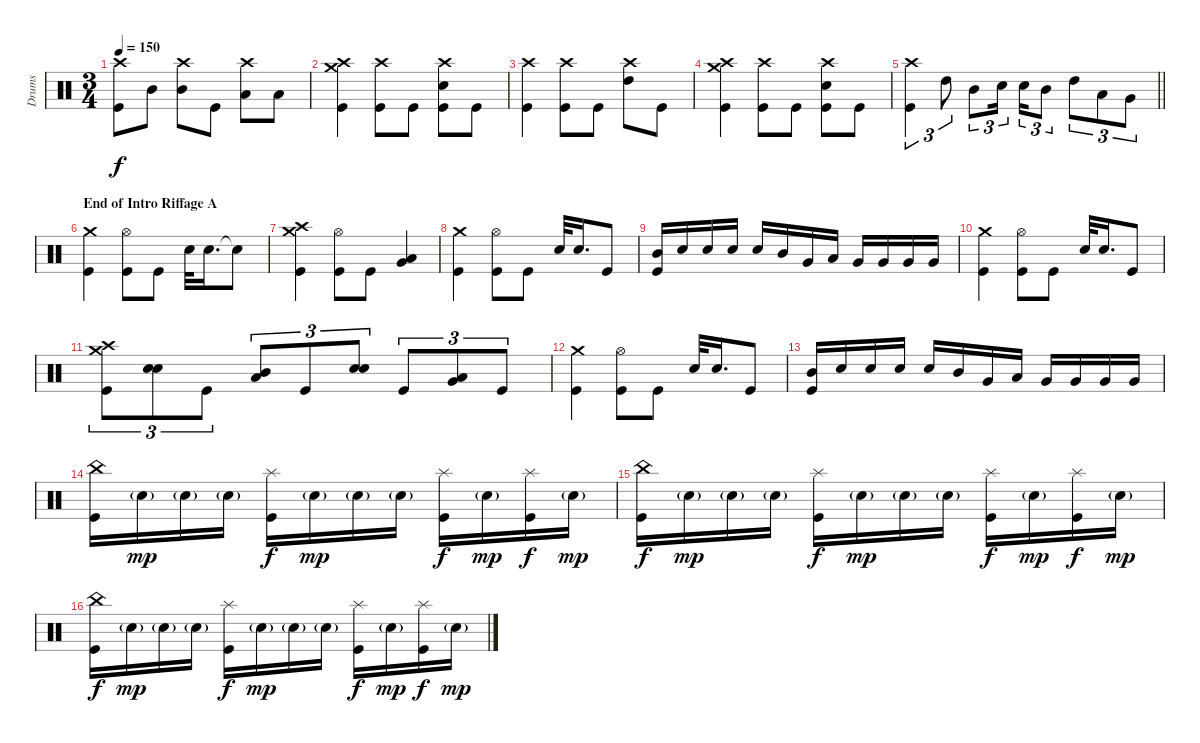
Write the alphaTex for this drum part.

\track ("Drums" "Drums") {instrument percussion}
\staff {score}
\articulation defaults
\ts (3 4)
\tempo 150
\clef neutral
\ks c
("Crash high (hit)" "Kick (hit)").8{dy f} "Mid Tom (hit)".8 ("Crash high (hit)" "Mid Tom (hit)").8 "Kick (hit)".8 ("Crash high (hit)" "Low Tom (hit)").8 "Low Tom (hit)".8 |
("Crash medium (hit)" "Crash high (hit)" "Kick (hit)").4 ("Crash high (hit)" "Kick (hit)").8 "Kick (hit)".8 ("Crash high (hit)" "Electric Snare (hit)" "Kick (hit)").8 "Kick (hit)".8 |
("Crash high (hit)" "Kick (hit)").4 ("Crash high (hit)" "Kick (hit)").8 "Kick (hit)".8 ("Crash high (hit)" "High Tom (hit)").8 "Kick (hit)".8 |
("Crash medium (hit)" "Crash high (hit)" "Kick (hit)").4 ("Crash high (hit)" "Kick (hit)").8 "Kick (hit)".8 ("Crash high (hit)" "Electric Snare (hit)" "Kick (hit)").8 "Kick (hit)".8 |
\barLineRight lightlight
("Crash high (hit)" "Kick (hit)").4{tu (3 2)} "High Tom (hit)".8{tu (3 2)} "Mid Tom (hit)".8{tu (3 2)} "Electric Snare (hit)".16{tu (3 2)} "Electric Snare (hit)".16{tu (3 2)} "Mid Tom (hit)".8{tu (3 2)} "High Tom (hit)".8{tu (3 2)} "Low Tom (hit)".8{tu (3 2)} "Very Low Tom (hit)".8{tu (3 2)} |
\section ("" "End of Intro Riffage A")
("Crash medium (hit)" "Kick (hit)").4 ("Hi-Hat (open)" "Kick (hit)").8 "Kick (hit)".8 "Electric Snare (hit)".32 "Electric Snare (hit)".16{d} "Snare (hit)"{t}.8 |
("Crash medium (hit)" "Crash high (hit)" "Kick (hit)").4 ("Hi-Hat (open)" "Kick (hit)").8 "Kick (hit)".8 ("Low Tom (hit)" "Very Low Tom (hit)").4 |
("Crash medium (hit)" "Kick (hit)").4 ("Hi-Hat (open)" "Kick (hit)").8 "Kick (hit)".8 "Electric Snare (hit)".32 "Electric Snare (hit)".16{d} "Kick (hit)".8 |
("Mid Tom (hit)" "Kick (hit)").16 "Electric Snare (hit)".16 "Electric Snare (hit)".16 "Electric Snare (hit)".16 "Electric Snare (hit)".16 "Mid Tom (hit)".16 "Very Low Tom (hit)".16 "Low Tom (hit)".16 "Very Low Tom (hit)".16 "Very Low Tom (hit)".16 "Very Low Tom (hit)".16 "Very Low Tom (hit)".16 |
("Crash medium (hit)" "Kick (hit)").4 ("Hi-Hat (open)" "Kick (hit)").8 "Kick (hit)".8 "Electric Snare (hit)".32 "Electric Snare (hit)".16{d} "Kick (hit)".8 |
("Crash medium (hit)" "Crash high (hit)" "Kick (hit)").8{tu (3 2)} ("Electric Snare (hit)" "Electric Snare (hit)").8{tu (3 2)} "Kick (hit)".8{tu (3 2)} ("Mid Tom (hit)" "Low Tom (hit)").8{tu (3 2)} "Kick (hit)".8{tu (3 2)} ("Electric Snare (hit)" "Electric Snare (hit)").8{tu (3 2)} "Kick (hit)".8{tu (3 2)} ("Low Tom (hit)" "Very Low Tom (hit)").8{tu (3 2)} "Kick (hit)".8{tu (3 2)} |
("Crash medium (hit)" "Kick (hit)").4 ("Hi-Hat (open)" "Kick (hit)").8 "Kick (hit)".8 "Electric Snare (hit)".32 "Electric Snare (hit)".16{d} "Kick (hit)".8 |
("Mid Tom (hit)" "Kick (hit)").16 "Electric Snare (hit)".16 "Electric Snare (hit)".16 "Electric Snare (hit)".16 "Electric Snare (hit)".16 "Mid Tom (hit)".16 "Very Low Tom (hit)".16 "Low Tom (hit)".16 "Very Low Tom (hit)".16 "Very Low Tom (hit)".16 "Very Low Tom (hit)".16 "Very Low Tom (hit)".16 |
("China (hit)" "Kick (hit)").16 "Electric Snare (hit)"{g}.16{dy mp} "Electric Snare (hit)"{g}.16 "Electric Snare (hit)"{g}.16 ("Splash (hit)" "Kick (hit)").16{dy f} "Electric Snare (hit)"{g}.16{dy mp} "Electric Snare (hit)"{g}.16 "Electric Snare (hit)"{g}.16 ("Splash (hit)" "Kick (hit)").16{dy f} "Electric Snare (hit)"{g}.16{dy mp} ("Splash (hit)" "Kick (hit)").16{dy f} "Electric Snare (hit)"{g}.16{dy mp} |
("China (hit)" "Kick (hit)").16{dy f} "Electric Snare (hit)"{g}.16{dy mp} "Electric Snare (hit)"{g}.16 "Electric Snare (hit)"{g}.16 ("Splash (hit)" "Kick (hit)").16{dy f} "Electric Snare (hit)"{g}.16{dy mp} "Electric Snare (hit)"{g}.16 "Electric Snare (hit)"{g}.16 ("Splash (hit)" "Kick (hit)").16{dy f} "Electric Snare (hit)"{g}.16{dy mp} ("Splash (hit)" "Kick (hit)").16{dy f} "Electric Snare (hit)"{g}.16{dy mp} |
("China (hit)" "Kick (hit)").16{dy f} "Electric Snare (hit)"{g}.16{dy mp} "Electric Snare (hit)"{g}.16 "Electric Snare (hit)"{g}.16 ("Splash (hit)" "Kick (hit)").16{dy f} "Electric Snare (hit)"{g}.16{dy mp} "Electric Snare (hit)"{g}.16 "Electric Snare (hit)"{g}.16 ("Splash (hit)" "Kick (hit)").16{dy f} "Electric Snare (hit)"{g}.16{dy mp} ("Splash (hit)" "Kick (hit)").16{dy f} "Electric Snare (hit)"{g}.16{dy mp}
